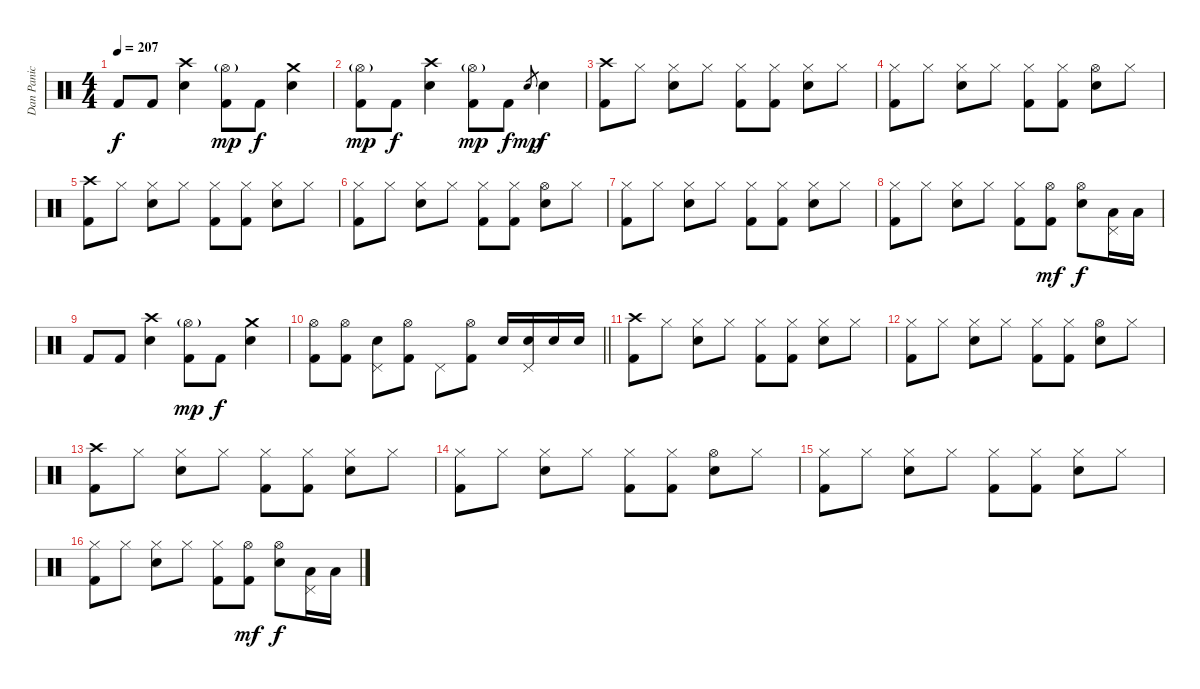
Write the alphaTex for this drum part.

\track ("Dan Panic" "Dan Panic") {instrument percussion}
\staff {score}
\articulation defaults
\ts (4 4)
\tempo 207
\clef neutral
\ks c "Kick (hit) 2".8{dy f} "Kick (hit) 2".8
("Crash high (hit)" "Electric Snare (hit)").4 ("Hi-Hat (open)"{g} "Kick (hit) 2").8{dy mp} "Kick (hit) 2".8{dy f} ("Crash medium (hit)" "Electric Snare (hit)").4 |
("Hi-Hat (open)"{g} "Kick (hit) 2").8{dy mp} "Kick (hit) 2".8{dy f} ("Crash high (hit)" "Electric Snare (hit)").4 ("Hi-Hat (open)"{g} "Kick (hit) 2").8{dy mp} "Kick (hit) 2".8{dy f} "Electric Snare (hit)".8{gr dy mp} "Electric Snare (hit)".4{dy f} |
("Crash high (hit)" "Kick (hit) 2").8 "Hi-Hat (closed)".8 ("Hi-Hat (closed)" "Electric Snare (hit)").8 "Hi-Hat (closed)".8 ("Hi-Hat (closed)" "Kick (hit) 2").8 ("Hi-Hat (closed)" "Kick (hit) 2").8 ("Hi-Hat (closed)" "Electric Snare (hit)").8 "Hi-Hat (closed)".8 |
("Hi-Hat (closed)" "Kick (hit) 2").8 "Hi-Hat (closed)".8 ("Hi-Hat (closed)" "Electric Snare (hit)").8 "Hi-Hat (closed)".8 ("Hi-Hat (closed)" "Kick (hit) 2").8 ("Hi-Hat (closed)" "Kick (hit) 2").8 ("Hi-Hat (open)" "Electric Snare (hit)").8 "Hi-Hat (closed)".8 |
("Crash high (hit)" "Kick (hit) 2").8 "Hi-Hat (closed)".8 ("Hi-Hat (closed)" "Electric Snare (hit)").8 "Hi-Hat (closed)".8 ("Hi-Hat (closed)" "Kick (hit) 2").8 ("Hi-Hat (closed)" "Kick (hit) 2").8 ("Hi-Hat (closed)" "Electric Snare (hit)").8 "Hi-Hat (closed)".8 |
("Hi-Hat (closed)" "Kick (hit) 2").8 "Hi-Hat (closed)".8 ("Hi-Hat (closed)" "Electric Snare (hit)").8 "Hi-Hat (closed)".8 ("Hi-Hat (closed)" "Kick (hit) 2").8 ("Hi-Hat (closed)" "Kick (hit) 2").8 ("Hi-Hat (open)" "Electric Snare (hit)").8 "Hi-Hat (closed)".8 |
("Hi-Hat (closed)" "Kick (hit) 2").8 "Hi-Hat (closed)".8 ("Hi-Hat (closed)" "Electric Snare (hit)").8 "Hi-Hat (closed)".8 ("Hi-Hat (closed)" "Kick (hit) 2").8 ("Hi-Hat (closed)" "Kick (hit) 2").8 ("Hi-Hat (closed)" "Electric Snare (hit)").8 "Hi-Hat (closed)".8 |
("Hi-Hat (closed)" "Kick (hit) 2").8 "Hi-Hat (closed)".8 ("Hi-Hat (closed)" "Electric Snare (hit)").8 "Hi-Hat (closed)".8 ("Hi-Hat (closed)" "Kick (hit) 2").8 ("Hi-Hat (open)" "Kick (hit) 2").8{dy mf} ("Hi-Hat (open)" "Electric Snare (hit)").8{dy f} ("Pedal Hi-Hat (hit)" "Low Tom (hit)").16 "Low Floor Tom (hit)".16 |
"Kick (hit) 2".8 "Kick (hit) 2".8 ("Crash high (hit)" "Electric Snare (hit)").4 ("Hi-Hat (open)"{g} "Kick (hit) 2").8{dy mp} "Kick (hit) 2".8{dy f} ("Crash medium (hit)" "Electric Snare (hit)").4 |
\barLineRight lightlight
("Hi-Hat (open)" "Kick (hit) 2").8 ("Hi-Hat (open)" "Kick (hit) 2").8 ("Pedal Hi-Hat (hit)" "Electric Snare (hit)").8 ("Hi-Hat (open)" "Kick (hit) 2").8 "Pedal Hi-Hat (hit)".8 ("Hi-Hat (open)" "Kick (hit) 2").8 "Electric Snare (hit)".16 ("Pedal Hi-Hat (hit)" "Electric Snare (hit)").16 "Electric Snare (hit)".16 "Electric Snare (hit)".16 |
\section ("" "")
("Crash high (hit)" "Kick (hit) 2").8 "Hi-Hat (closed)".8 ("Hi-Hat (closed)" "Electric Snare (hit)").8 "Hi-Hat (closed)".8 ("Hi-Hat (closed)" "Kick (hit) 2").8 ("Hi-Hat (closed)" "Kick (hit) 2").8 ("Hi-Hat (closed)" "Electric Snare (hit)").8 "Hi-Hat (closed)".8 |
("Hi-Hat (closed)" "Kick (hit) 2").8 "Hi-Hat (closed)".8 ("Hi-Hat (closed)" "Electric Snare (hit)").8 "Hi-Hat (closed)".8 ("Hi-Hat (closed)" "Kick (hit) 2").8 ("Hi-Hat (closed)" "Kick (hit) 2").8 ("Hi-Hat (open)" "Electric Snare (hit)").8 "Hi-Hat (closed)".8 |
("Crash high (hit)" "Kick (hit) 2").8 "Hi-Hat (closed)".8 ("Hi-Hat (closed)" "Electric Snare (hit)").8 "Hi-Hat (closed)".8 ("Hi-Hat (closed)" "Kick (hit) 2").8 ("Hi-Hat (closed)" "Kick (hit) 2").8 ("Hi-Hat (closed)" "Electric Snare (hit)").8 "Hi-Hat (closed)".8 |
("Hi-Hat (closed)" "Kick (hit) 2").8 "Hi-Hat (closed)".8 ("Hi-Hat (closed)" "Electric Snare (hit)").8 "Hi-Hat (closed)".8 ("Hi-Hat (closed)" "Kick (hit) 2").8 ("Hi-Hat (closed)" "Kick (hit) 2").8 ("Hi-Hat (open)" "Electric Snare (hit)").8 "Hi-Hat (closed)".8 |
("Hi-Hat (closed)" "Kick (hit) 2").8 "Hi-Hat (closed)".8 ("Hi-Hat (closed)" "Electric Snare (hit)").8 "Hi-Hat (closed)".8 ("Hi-Hat (closed)" "Kick (hit) 2").8 ("Hi-Hat (closed)" "Kick (hit) 2").8 ("Hi-Hat (closed)" "Electric Snare (hit)").8 "Hi-Hat (closed)".8 |
("Hi-Hat (closed)" "Kick (hit) 2").8 "Hi-Hat (closed)".8 ("Hi-Hat (closed)" "Electric Snare (hit)").8 "Hi-Hat (closed)".8 ("Hi-Hat (closed)" "Kick (hit) 2").8 ("Hi-Hat (open)" "Kick (hit) 2").8{dy mf} ("Hi-Hat (open)" "Electric Snare (hit)").8{dy f} ("Pedal Hi-Hat (hit)" "Low Tom (hit)").16 "Low Floor Tom (hit)".16
